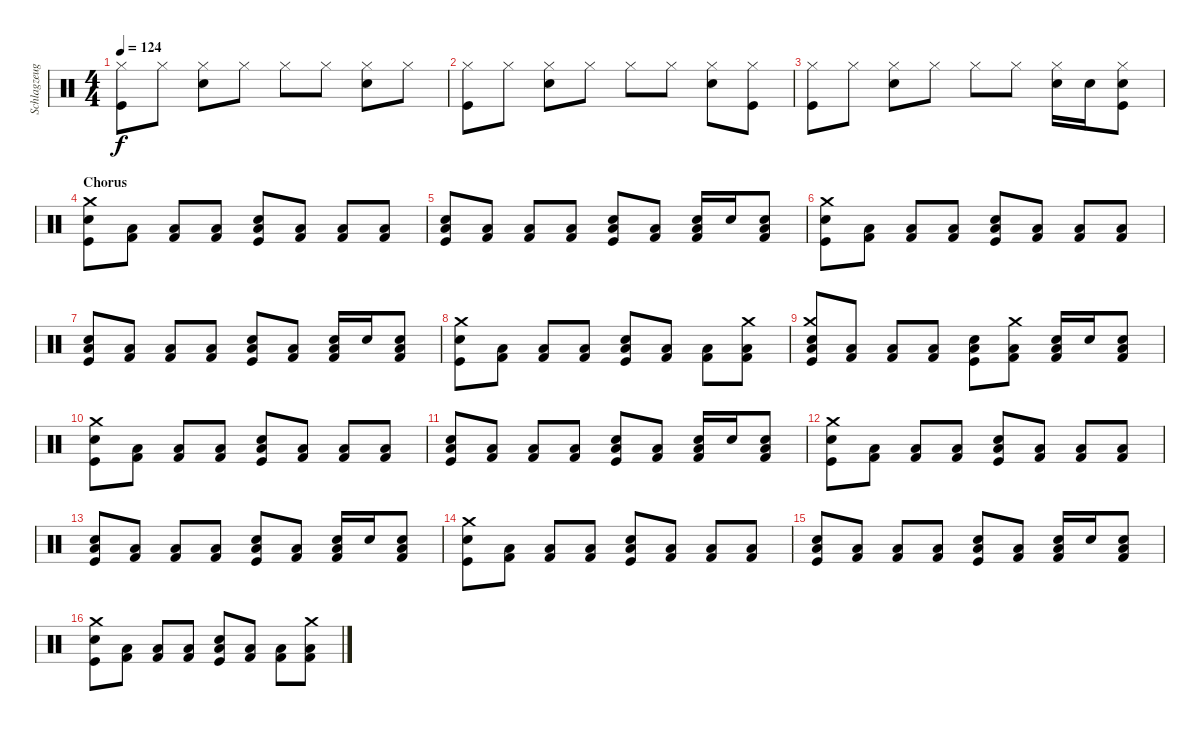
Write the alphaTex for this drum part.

\track ("Schlagzeug - Bela B." "Schlagzeug") {instrument percussion}
\staff {score}
\articulation defaults
\ts (4 4)
\tempo 124
\clef neutral
\ks c
("Kick (hit)" "Hi-Hat (closed)").8{dy f} "Hi-Hat (closed)".8 ("Hi-Hat (closed)" "Snare (hit) 2").8 "Hi-Hat (closed)".8 "Hi-Hat (closed)".8 "Hi-Hat (closed)".8 ("Hi-Hat (closed)" "Snare (hit) 2").8 "Hi-Hat (closed)".8 |
("Kick (hit)" "Hi-Hat (closed)").8 "Hi-Hat (closed)".8 ("Hi-Hat (closed)" "Snare (hit) 2").8 "Hi-Hat (closed)".8 "Hi-Hat (closed)".8 "Hi-Hat (closed)".8 ("Hi-Hat (closed)" "Snare (hit) 2").8 ("Hi-Hat (closed)" "Kick (hit)").8 |
("Kick (hit)" "Hi-Hat (closed)").8 "Hi-Hat (closed)".8 ("Hi-Hat (closed)" "Snare (hit) 2").8 "Hi-Hat (closed)".8 "Hi-Hat (closed)".8 "Hi-Hat (closed)".8 ("Hi-Hat (closed)" "Snare (hit) 2").16 "Snare (hit) 2".16 ("Hi-Hat (closed)" "Kick (hit)" "Snare (hit) 2").8 |
\section ("" "Chorus")
("Crash medium (hit)" "Kick (hit)" "Snare (hit) 2").8 ("Low Floor Tom (hit)" "Kick (hit) 2").8 ("Low Floor Tom (hit)" "Kick (hit) 2").8 ("Low Floor Tom (hit)" "Kick (hit) 2").8 ("Low Floor Tom (hit)" "Kick (hit)" "Snare (hit) 2").8 ("Low Floor Tom (hit)" "Kick (hit) 2").8 ("Low Floor Tom (hit)" "Kick (hit) 2").8 ("Low Floor Tom (hit)" "Kick (hit) 2").8 |
("Low Floor Tom (hit)" "Kick (hit)" "Snare (hit) 2").8 ("Low Floor Tom (hit)" "Kick (hit) 2").8 ("Low Floor Tom (hit)" "Kick (hit) 2").8 ("Low Floor Tom (hit)" "Kick (hit) 2").8 ("Low Floor Tom (hit)" "Kick (hit)" "Snare (hit) 2").8 ("Low Floor Tom (hit)" "Kick (hit) 2").8 ("Low Floor Tom (hit)" "Kick (hit) 2" "Snare (hit) 2").16 "Snare (hit) 2".16 ("Low Floor Tom (hit)" "Kick (hit) 2" "Snare (hit) 2").8 |
("Crash medium (hit)" "Kick (hit)" "Snare (hit) 2").8 ("Low Floor Tom (hit)" "Kick (hit) 2").8 ("Low Floor Tom (hit)" "Kick (hit) 2").8 ("Low Floor Tom (hit)" "Kick (hit) 2").8 ("Low Floor Tom (hit)" "Kick (hit)" "Snare (hit) 2").8 ("Low Floor Tom (hit)" "Kick (hit) 2").8 ("Low Floor Tom (hit)" "Kick (hit) 2").8 ("Low Floor Tom (hit)" "Kick (hit) 2").8 |
("Low Floor Tom (hit)" "Kick (hit)" "Snare (hit) 2").8 ("Low Floor Tom (hit)" "Kick (hit) 2").8 ("Low Floor Tom (hit)" "Kick (hit) 2").8 ("Low Floor Tom (hit)" "Kick (hit) 2").8 ("Low Floor Tom (hit)" "Kick (hit)" "Snare (hit) 2").8 ("Low Floor Tom (hit)" "Kick (hit) 2").8 ("Low Floor Tom (hit)" "Kick (hit) 2" "Snare (hit) 2").16 "Snare (hit) 2".16 ("Low Floor Tom (hit)" "Kick (hit) 2" "Snare (hit) 2").8 |
("Crash medium (hit)" "Kick (hit)" "Snare (hit) 2").8 ("Low Floor Tom (hit)" "Kick (hit) 2").8 ("Low Floor Tom (hit)" "Kick (hit) 2").8 ("Low Floor Tom (hit)" "Kick (hit) 2").8 ("Low Floor Tom (hit)" "Kick (hit)" "Snare (hit) 2").8 ("Low Floor Tom (hit)" "Kick (hit) 2").8 ("Low Floor Tom (hit)" "Kick (hit) 2").8 ("Low Floor Tom (hit)" "Kick (hit) 2" "Crash medium (hit)").8 |
("Low Floor Tom (hit)" "Kick (hit)" "Snare (hit) 2" "Crash medium (hit)").8 ("Low Floor Tom (hit)" "Kick (hit) 2").8 ("Low Floor Tom (hit)" "Kick (hit) 2").8 ("Low Floor Tom (hit)" "Kick (hit) 2").8 ("Low Floor Tom (hit)" "Kick (hit)" "Snare (hit) 2").8 ("Low Floor Tom (hit)" "Kick (hit) 2" "Crash medium (hit)").8 ("Low Floor Tom (hit)" "Kick (hit) 2" "Snare (hit) 2").16 "Snare (hit) 2".16 ("Low Floor Tom (hit)" "Kick (hit) 2" "Snare (hit) 2").8 |
("Kick (hit)" "Snare (hit) 2" "Crash medium (hit)").8 ("Low Floor Tom (hit)" "Kick (hit) 2").8 ("Low Floor Tom (hit)" "Kick (hit) 2").8 ("Low Floor Tom (hit)" "Kick (hit) 2").8 ("Low Floor Tom (hit)" "Kick (hit)" "Snare (hit) 2").8 ("Low Floor Tom (hit)" "Kick (hit) 2").8 ("Low Floor Tom (hit)" "Kick (hit) 2").8 ("Low Floor Tom (hit)" "Kick (hit) 2").8 |
("Low Floor Tom (hit)" "Kick (hit)" "Snare (hit) 2").8 ("Low Floor Tom (hit)" "Kick (hit) 2").8 ("Low Floor Tom (hit)" "Kick (hit) 2").8 ("Low Floor Tom (hit)" "Kick (hit) 2").8 ("Low Floor Tom (hit)" "Kick (hit)" "Snare (hit) 2").8 ("Low Floor Tom (hit)" "Kick (hit) 2").8 ("Low Floor Tom (hit)" "Kick (hit) 2" "Snare (hit) 2").16 "Snare (hit) 2".16 ("Low Floor Tom (hit)" "Kick (hit) 2" "Snare (hit) 2").8 |
("Crash medium (hit)" "Kick (hit)" "Snare (hit) 2").8 ("Low Floor Tom (hit)" "Kick (hit) 2").8 ("Low Floor Tom (hit)" "Kick (hit) 2").8 ("Low Floor Tom (hit)" "Kick (hit) 2").8 ("Low Floor Tom (hit)" "Kick (hit)" "Snare (hit) 2").8 ("Low Floor Tom (hit)" "Kick (hit) 2").8 ("Low Floor Tom (hit)" "Kick (hit) 2").8 ("Low Floor Tom (hit)" "Kick (hit) 2").8 |
("Low Floor Tom (hit)" "Kick (hit)" "Snare (hit) 2").8 ("Low Floor Tom (hit)" "Kick (hit) 2").8 ("Low Floor Tom (hit)" "Kick (hit) 2").8 ("Low Floor Tom (hit)" "Kick (hit) 2").8 ("Low Floor Tom (hit)" "Kick (hit)" "Snare (hit) 2").8 ("Low Floor Tom (hit)" "Kick (hit) 2").8 ("Low Floor Tom (hit)" "Kick (hit) 2" "Snare (hit) 2").16 "Snare (hit) 2".16 ("Low Floor Tom (hit)" "Kick (hit) 2" "Snare (hit) 2").8 |
("Crash medium (hit)" "Kick (hit)" "Snare (hit) 2").8 ("Low Floor Tom (hit)" "Kick (hit) 2").8 ("Low Floor Tom (hit)" "Kick (hit) 2").8 ("Low Floor Tom (hit)" "Kick (hit) 2").8 ("Low Floor Tom (hit)" "Kick (hit)" "Snare (hit) 2").8 ("Low Floor Tom (hit)" "Kick (hit) 2").8 ("Low Floor Tom (hit)" "Kick (hit) 2").8 ("Low Floor Tom (hit)" "Kick (hit) 2").8 |
("Low Floor Tom (hit)" "Kick (hit)" "Snare (hit) 2").8 ("Low Floor Tom (hit)" "Kick (hit) 2").8 ("Low Floor Tom (hit)" "Kick (hit) 2").8 ("Low Floor Tom (hit)" "Kick (hit) 2").8 ("Low Floor Tom (hit)" "Kick (hit)" "Snare (hit) 2").8 ("Low Floor Tom (hit)" "Kick (hit) 2").8 ("Low Floor Tom (hit)" "Kick (hit) 2" "Snare (hit) 2").16 "Snare (hit) 2".16 ("Low Floor Tom (hit)" "Kick (hit) 2" "Snare (hit) 2").8 |
("Crash medium (hit)" "Kick (hit)" "Snare (hit) 2").8 ("Low Floor Tom (hit)" "Kick (hit) 2").8 ("Low Floor Tom (hit)" "Kick (hit) 2").8 ("Low Floor Tom (hit)" "Kick (hit) 2").8 ("Low Floor Tom (hit)" "Kick (hit)" "Snare (hit) 2").8 ("Low Floor Tom (hit)" "Kick (hit) 2").8 ("Low Floor Tom (hit)" "Kick (hit) 2").8 ("Low Floor Tom (hit)" "Kick (hit) 2" "Crash medium (hit)").8
